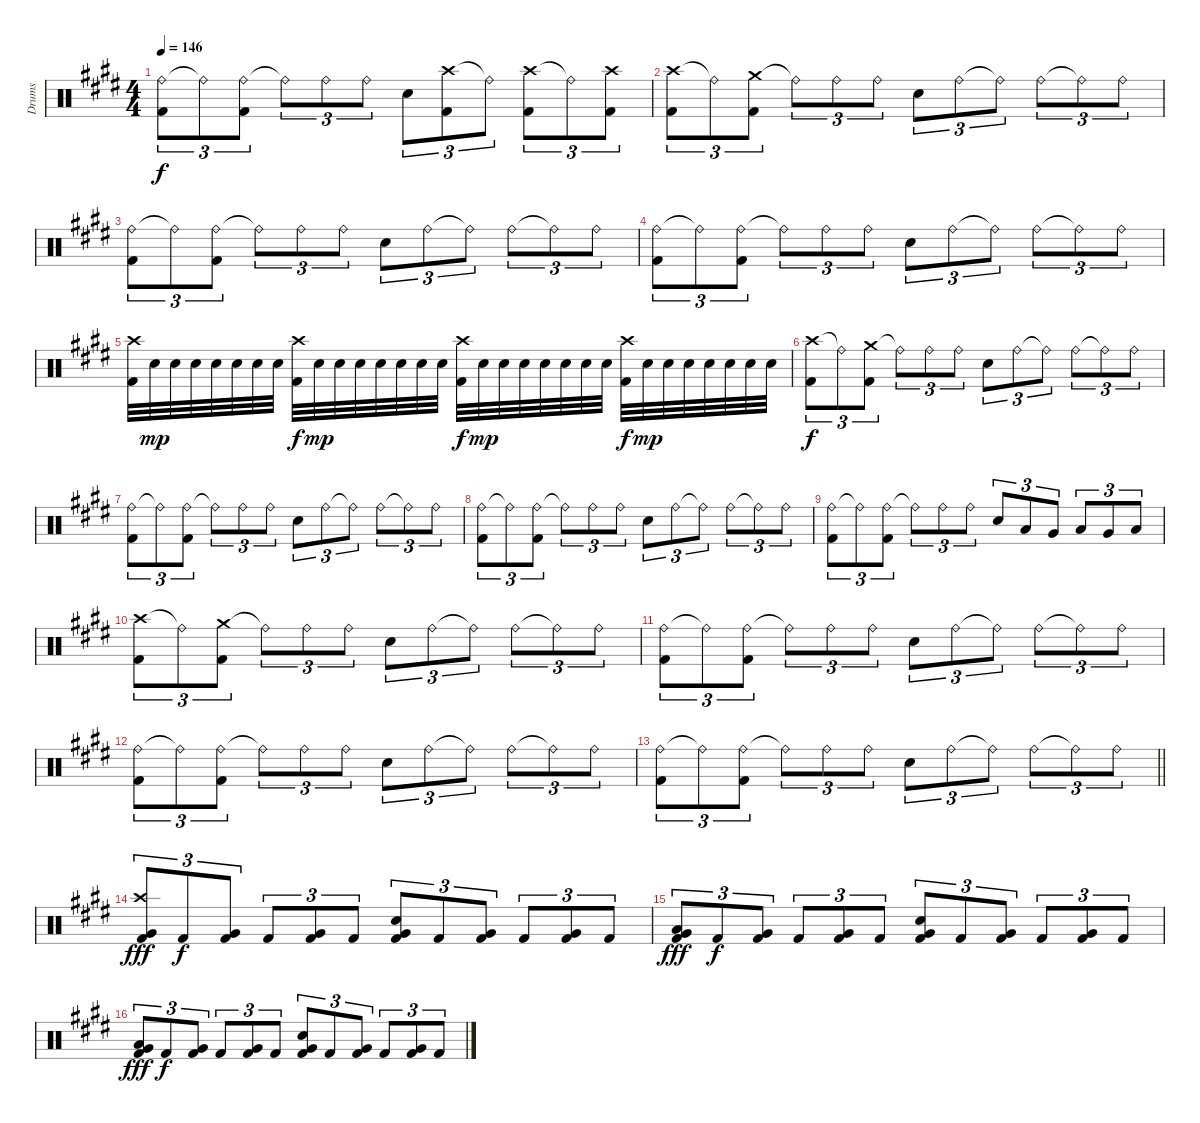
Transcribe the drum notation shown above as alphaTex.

\track ("Drums" "Drums") {instrument percussion}
\staff {score}
\articulation defaults
\ts (4 4)
\tempo 146
\clef neutral
\ks c#minor
("Ride (bell)" "Kick (hit) 2").8{tu (3 2) dy f} "Ride (bell)"{t}.8{tu (3 2)} ("Ride (bell)" "Kick (hit) 2").8{tu (3 2)} "Ride (bell)"{t}.8{tu (3 2)} "Ride (bell)".8{tu (3 2)} "Ride (bell)".8{tu (3 2)} "Snare (hit) 2".8{tu (3 2)} ("Crash high (hit)" "Kick (hit) 2").8{tu (3 2)} "Ride (bell)"{t}.8{tu (3 2)} ("Crash high (hit)" "Kick (hit) 2").8{tu (3 2)} "Ride (bell)"{t}.8{tu (3 2)} ("Crash high (hit)" "Kick (hit) 2").8{tu (3 2)} |
("Crash high (hit)" "Kick (hit) 2").8{tu (3 2)} "Ride (bell)"{t}.8{tu (3 2)} ("Crash medium (hit)" "Kick (hit) 2").8{tu (3 2)} "Ride (bell)"{t}.8{tu (3 2)} "Ride (bell)".8{tu (3 2)} "Ride (bell)".8{tu (3 2)} "Snare (hit) 2".8{tu (3 2)} "Ride (bell)".8{tu (3 2)} "Ride (bell)"{t}.8{tu (3 2)} "Ride (bell)".8{tu (3 2)} "Ride (bell)"{t}.8{tu (3 2)} "Ride (bell)".8{tu (3 2)} |
("Ride (bell)" "Kick (hit) 2").8{tu (3 2)} "Ride (bell)"{t}.8{tu (3 2)} ("Ride (bell)" "Kick (hit) 2").8{tu (3 2)} "Ride (bell)"{t}.8{tu (3 2)} "Ride (bell)".8{tu (3 2)} "Ride (bell)".8{tu (3 2)} "Snare (hit) 2".8{tu (3 2)} "Ride (bell)".8{tu (3 2)} "Ride (bell)"{t}.8{tu (3 2)} "Ride (bell)".8{tu (3 2)} "Ride (bell)"{t}.8{tu (3 2)} "Ride (bell)".8{tu (3 2)} |
("Ride (bell)" "Kick (hit) 2").8{tu (3 2)} "Ride (bell)"{t}.8{tu (3 2)} ("Ride (bell)" "Kick (hit) 2").8{tu (3 2)} "Ride (bell)"{t}.8{tu (3 2)} "Ride (bell)".8{tu (3 2)} "Ride (bell)".8{tu (3 2)} "Snare (hit) 2".8{tu (3 2)} "Ride (bell)".8{tu (3 2)} "Ride (bell)"{t}.8{tu (3 2)} "Ride (bell)".8{tu (3 2)} "Ride (bell)"{t}.8{tu (3 2)} "Ride (bell)".8{tu (3 2)} |
("Crash high (hit)" "Kick (hit) 2").32 "Snare (hit) 2".32{dy mp} "Snare (hit) 2".32 "Snare (hit) 2".32 "Snare (hit) 2".32 "Snare (hit) 2".32 "Snare (hit) 2".32 "Snare (hit) 2".32 ("Crash high (hit)" "Kick (hit) 2").32{dy f} "Snare (hit) 2".32{dy mp} "Snare (hit) 2".32 "Snare (hit) 2".32 "Snare (hit) 2".32 "Snare (hit) 2".32 "Snare (hit) 2".32 "Snare (hit) 2".32 ("Crash high (hit)" "Kick (hit) 2").32{dy f} "Snare (hit) 2".32{dy mp} "Snare (hit) 2".32 "Snare (hit) 2".32 "Snare (hit) 2".32 "Snare (hit) 2".32 "Snare (hit) 2".32 "Snare (hit) 2".32 ("Crash high (hit)" "Kick (hit) 2").32{dy f} "Snare (hit) 2".32{dy mp} "Snare (hit) 2".32 "Snare (hit) 2".32 "Snare (hit) 2".32 "Snare (hit) 2".32 "Snare (hit) 2".32 "Snare (hit) 2".32 |
("Crash high (hit)" "Kick (hit) 2").8{tu (3 2) dy f} "Ride (bell)"{t}.8{tu (3 2)} ("Crash medium (hit)" "Kick (hit) 2").8{tu (3 2)} "Ride (bell)"{t}.8{tu (3 2)} "Ride (bell)".8{tu (3 2)} "Ride (bell)".8{tu (3 2)} "Snare (hit) 2".8{tu (3 2)} "Ride (bell)".8{tu (3 2)} "Ride (bell)"{t}.8{tu (3 2)} "Ride (bell)".8{tu (3 2)} "Ride (bell)"{t}.8{tu (3 2)} "Ride (bell)".8{tu (3 2)} |
("Ride (bell)" "Kick (hit) 2").8{tu (3 2)} "Ride (bell)"{t}.8{tu (3 2)} ("Ride (bell)" "Kick (hit) 2").8{tu (3 2)} "Ride (bell)"{t}.8{tu (3 2)} "Ride (bell)".8{tu (3 2)} "Ride (bell)".8{tu (3 2)} "Snare (hit) 2".8{tu (3 2)} "Ride (bell)".8{tu (3 2)} "Ride (bell)"{t}.8{tu (3 2)} "Ride (bell)".8{tu (3 2)} "Ride (bell)"{t}.8{tu (3 2)} "Ride (bell)".8{tu (3 2)} |
("Ride (bell)" "Kick (hit) 2").8{tu (3 2)} "Ride (bell)"{t}.8{tu (3 2)} ("Ride (bell)" "Kick (hit) 2").8{tu (3 2)} "Ride (bell)"{t}.8{tu (3 2)} "Ride (bell)".8{tu (3 2)} "Ride (bell)".8{tu (3 2)} "Snare (hit) 2".8{tu (3 2)} "Ride (bell)".8{tu (3 2)} "Ride (bell)"{t}.8{tu (3 2)} "Ride (bell)".8{tu (3 2)} "Ride (bell)"{t}.8{tu (3 2)} "Ride (bell)".8{tu (3 2)} |
("Ride (bell)" "Kick (hit) 2").8{tu (3 2)} "Ride (bell)"{t}.8{tu (3 2)} ("Ride (bell)" "Kick (hit) 2").8{tu (3 2)} "Ride (bell)"{t}.8{tu (3 2)} "Ride (bell)".8{tu (3 2)} "Ride (bell)".8{tu (3 2)} "Snare (hit) 2".8{tu (3 2)} "Low Tom (hit)".8{tu (3 2)} "Very Low Tom (hit)".8{tu (3 2)} "Low Floor Tom (hit)".8{tu (3 2)} "Very Low Tom (hit)".8{tu (3 2)} "Low Floor Tom (hit)".8{tu (3 2)} |
("Crash high (hit)" "Kick (hit) 2").8{tu (3 2)} "Ride (bell)"{t}.8{tu (3 2)} ("Crash medium (hit)" "Kick (hit) 2").8{tu (3 2)} "Ride (bell)"{t}.8{tu (3 2)} "Ride (bell)".8{tu (3 2)} "Ride (bell)".8{tu (3 2)} "Snare (hit) 2".8{tu (3 2)} "Ride (bell)".8{tu (3 2)} "Ride (bell)"{t}.8{tu (3 2)} "Ride (bell)".8{tu (3 2)} "Ride (bell)"{t}.8{tu (3 2)} "Ride (bell)".8{tu (3 2)} |
("Ride (bell)" "Kick (hit) 2").8{tu (3 2)} "Ride (bell)"{t}.8{tu (3 2)} ("Ride (bell)" "Kick (hit) 2").8{tu (3 2)} "Ride (bell)"{t}.8{tu (3 2)} "Ride (bell)".8{tu (3 2)} "Ride (bell)".8{tu (3 2)} "Snare (hit) 2".8{tu (3 2)} "Ride (bell)".8{tu (3 2)} "Ride (bell)"{t}.8{tu (3 2)} "Ride (bell)".8{tu (3 2)} "Ride (bell)"{t}.8{tu (3 2)} "Ride (bell)".8{tu (3 2)} |
("Ride (bell)" "Kick (hit) 2").8{tu (3 2)} "Ride (bell)"{t}.8{tu (3 2)} ("Ride (bell)" "Kick (hit) 2").8{tu (3 2)} "Ride (bell)"{t}.8{tu (3 2)} "Ride (bell)".8{tu (3 2)} "Ride (bell)".8{tu (3 2)} "Snare (hit) 2".8{tu (3 2)} "Ride (bell)".8{tu (3 2)} "Ride (bell)"{t}.8{tu (3 2)} "Ride (bell)".8{tu (3 2)} "Ride (bell)"{t}.8{tu (3 2)} "Ride (bell)".8{tu (3 2)} |
\barLineRight lightlight
("Ride (bell)" "Kick (hit) 2").8{tu (3 2)} "Ride (bell)"{t}.8{tu (3 2)} ("Ride (bell)" "Kick (hit) 2").8{tu (3 2)} "Ride (bell)"{t}.8{tu (3 2)} "Ride (bell)".8{tu (3 2)} "Ride (bell)".8{tu (3 2)} "Snare (hit) 2".8{tu (3 2)} "Ride (bell)".8{tu (3 2)} "Ride (bell)"{t}.8{tu (3 2)} "Ride (bell)".8{tu (3 2)} "Ride (bell)"{t}.8{tu (3 2)} "Ride (bell)".8{tu (3 2)} |
("Crash high (hit)" "Very Low Tom (hit)" "Kick (hit) 2").8{tu (3 2) dy fff} "Kick (hit) 2".8{tu (3 2) dy f} ("Very Low Tom (hit)" "Kick (hit) 2").8{tu (3 2)} "Kick (hit) 2".8{tu (3 2)} ("Very Low Tom (hit)" "Kick (hit) 2").8{tu (3 2)} "Kick (hit) 2".8{tu (3 2)} ("Snare (hit) 2" "Very Low Tom (hit)" "Kick (hit) 2").8{tu (3 2)} "Kick (hit) 2".8{tu (3 2)} ("Very Low Tom (hit)" "Kick (hit) 2").8{tu (3 2)} "Kick (hit) 2".8{tu (3 2)} ("Very Low Tom (hit)" "Kick (hit) 2").8{tu (3 2)} "Kick (hit) 2".8{tu (3 2)} |
("Low Tom (hit)" "Very Low Tom (hit)" "Kick (hit) 2").8{tu (3 2) dy fff} "Kick (hit) 2".8{tu (3 2) dy f} ("Very Low Tom (hit)" "Kick (hit) 2").8{tu (3 2)} "Kick (hit) 2".8{tu (3 2)} ("Very Low Tom (hit)" "Kick (hit) 2").8{tu (3 2)} "Kick (hit) 2".8{tu (3 2)} ("Snare (hit) 2" "Very Low Tom (hit)" "Kick (hit) 2").8{tu (3 2)} "Kick (hit) 2".8{tu (3 2)} ("Very Low Tom (hit)" "Kick (hit) 2").8{tu (3 2)} "Kick (hit) 2".8{tu (3 2)} ("Very Low Tom (hit)" "Kick (hit) 2").8{tu (3 2)} "Kick (hit) 2".8{tu (3 2)} |
("Low Tom (hit)" "Very Low Tom (hit)" "Kick (hit) 2").8{tu (3 2) dy fff} "Kick (hit) 2".8{tu (3 2) dy f} ("Very Low Tom (hit)" "Kick (hit) 2").8{tu (3 2)} "Kick (hit) 2".8{tu (3 2)} ("Very Low Tom (hit)" "Kick (hit) 2").8{tu (3 2)} "Kick (hit) 2".8{tu (3 2)} ("Snare (hit) 2" "Very Low Tom (hit)" "Kick (hit) 2").8{tu (3 2)} "Kick (hit) 2".8{tu (3 2)} ("Very Low Tom (hit)" "Kick (hit) 2").8{tu (3 2)} "Kick (hit) 2".8{tu (3 2)} ("Very Low Tom (hit)" "Kick (hit) 2").8{tu (3 2)} "Kick (hit) 2".8{tu (3 2)}
